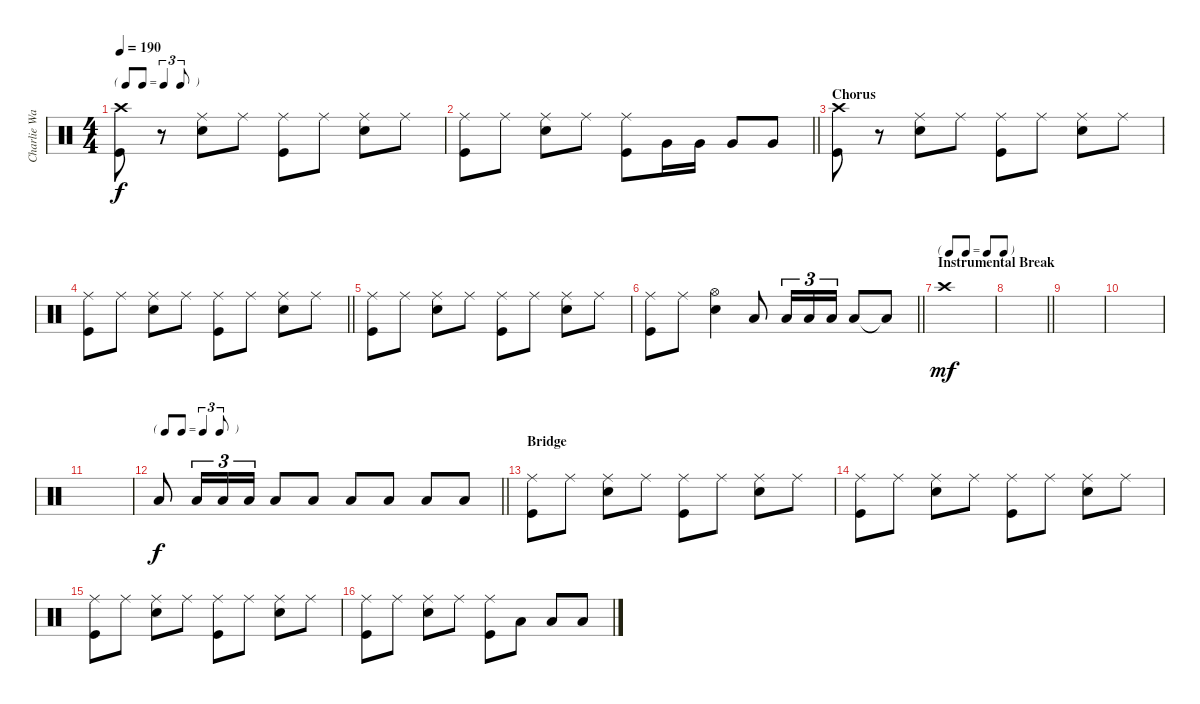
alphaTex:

\track ("Charlie Watts" "Charlie Wa") {instrument percussion}
\staff {score}
\articulation defaults
\ts (4 4)
\tf triplet8th
\tempo 190
\clef neutral
\ks c
("Crash high (hit)" "Kick (hit)").8{dy f} r.8 ("Ride (middle)" "Snare (hit) 2").8 "Ride (middle)".8 ("Ride (middle)" "Kick (hit)").8 "Ride (middle)".8 ("Ride (middle)" "Snare (hit) 2").8 "Ride (middle)".8 |
\barLineRight lightlight
("Ride (middle)" "Kick (hit)").8 "Ride (middle)".8 ("Ride (middle)" "Snare (hit) 2").8 "Ride (middle)".8 ("Ride (middle)" "Kick (hit)").8 "Very Low Tom (hit)".16 "Very Low Tom (hit)".16 "Very Low Tom (hit)".8 "Very Low Tom (hit)".8 |
\section ("" "Chorus")
("Crash high (hit)" "Kick (hit)").8 r.8 ("Ride (middle)" "Snare (hit) 2").8 "Ride (middle)".8 ("Ride (middle)" "Kick (hit)").8 "Ride (middle)".8 ("Ride (middle)" "Snare (hit) 2").8 "Ride (middle)".8 |
\barLineRight lightlight
("Ride (middle)" "Kick (hit)").8 "Ride (middle)".8 ("Ride (middle)" "Snare (hit) 2").8 "Ride (middle)".8 ("Ride (middle)" "Kick (hit)").8 "Ride (middle)".8 ("Ride (middle)" "Snare (hit) 2").8 "Ride (middle)".8 |
("Ride (middle)" "Kick (hit)").8 "Ride (middle)".8 ("Ride (middle)" "Snare (hit) 2").8 "Ride (middle)".8 ("Ride (middle)" "Kick (hit)").8 "Ride (middle)".8 ("Ride (middle)" "Snare (hit) 2").8 "Ride (middle)".8 |
\barLineRight lightlight
("Ride (middle)" "Kick (hit)").8 "Ride (middle)".8 ("Hi-Hat (open)" "Snare (hit) 2").4 "Low Tom (hit)".8 "Low Tom (hit)".16{tu (3 2)} "Low Tom (hit)".16{tu (3 2)} "Low Tom (hit)".16{tu (3 2)} "Low Tom (hit)".8 "Low Tom (hit)"{t}.8 |
\tf none
\section ("" "Instrumental Break")
"Crash high (hit)".1{dy mf} |
\barLineRight lightlight
|
|
|
|
\tf triplet8th
\barLineRight lightlight "Low Tom (hit)".8{dy f} "Low Tom (hit)".16{tu (3 2)} "Low Tom (hit)".16{tu (3 2)} "Low Tom (hit)".16{tu (3 2)} "Low Tom (hit)".8 "Low Tom (hit)".8 "Low Tom (hit)".8 "Low Tom (hit)".8 "Low Tom (hit)".8 "Low Tom (hit)".8
|
\section ("" "Bridge")
("Ride (middle)" "Kick (hit)").8 "Ride (middle)".8 ("Ride (middle)" "Snare (hit) 2").8 "Ride (middle)".8 ("Ride (middle)" "Kick (hit)").8 "Ride (middle)".8 ("Ride (middle)" "Snare (hit) 2").8 "Ride (middle)".8 |
("Ride (middle)" "Kick (hit)").8 "Ride (middle)".8 ("Ride (middle)" "Snare (hit) 2").8 "Ride (middle)".8 ("Ride (middle)" "Kick (hit)").8 "Ride (middle)".8 ("Ride (middle)" "Snare (hit) 2").8 "Ride (middle)".8 |
("Ride (middle)" "Kick (hit)").8 "Ride (middle)".8 ("Ride (middle)" "Snare (hit) 2").8 "Ride (middle)".8 ("Ride (middle)" "Kick (hit)").8 "Ride (middle)".8 ("Ride (middle)" "Snare (hit) 2").8 "Ride (middle)".8 |
("Ride (middle)" "Kick (hit)").8 "Ride (middle)".8 ("Ride (middle)" "Snare (hit) 2").8 "Ride (middle)".8 ("Ride (middle)" "Kick (hit)").8 "Low Tom (hit)".8 "Low Tom (hit)".8 "Low Tom (hit)".8
